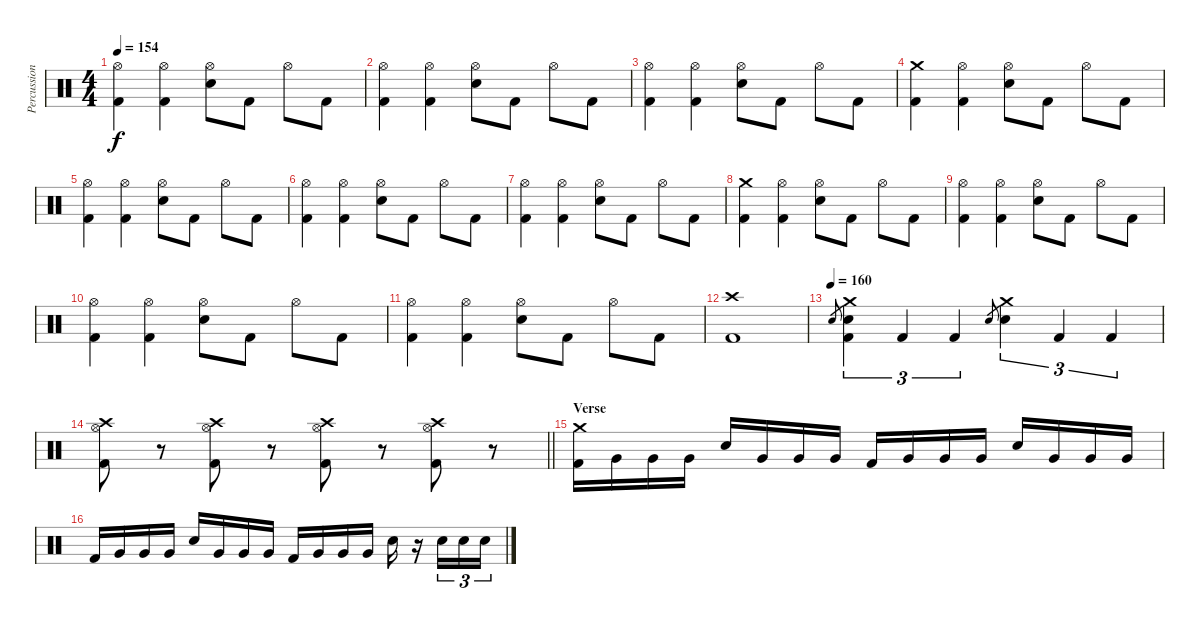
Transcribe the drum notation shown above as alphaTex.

\track ("Percussion" "Percussion") {instrument percussion}
\staff {score}
\articulation defaults
\ts (4 4)
\tempo 154
\clef neutral
\ks c
("Hi-Hat (open)" "Kick (hit) 2").4{dy f} ("Hi-Hat (open)" "Kick (hit) 2").4 ("Electric Snare (hit)" "Hi-Hat (open)").8 "Kick (hit) 2".8 "Hi-Hat (open)".8 "Kick (hit) 2".8 |
("Hi-Hat (open)" "Kick (hit) 2").4 ("Hi-Hat (open)" "Kick (hit) 2").4 ("Electric Snare (hit)" "Hi-Hat (open)").8 "Kick (hit) 2".8 "Hi-Hat (open)".8 "Kick (hit) 2".8 |
("Hi-Hat (open)" "Kick (hit) 2").4 ("Hi-Hat (open)" "Kick (hit) 2").4 ("Electric Snare (hit)" "Hi-Hat (open)").8 "Kick (hit) 2".8 "Hi-Hat (open)".8 "Kick (hit) 2".8 |
("Crash medium (hit)" "Kick (hit) 2").4 ("Hi-Hat (open)" "Kick (hit) 2").4 ("Electric Snare (hit)" "Hi-Hat (open)").8 "Kick (hit) 2".8 "Hi-Hat (open)".8 "Kick (hit) 2".8 |
("Hi-Hat (open)" "Kick (hit) 2").4 ("Hi-Hat (open)" "Kick (hit) 2").4 ("Electric Snare (hit)" "Hi-Hat (open)").8 "Kick (hit) 2".8 "Hi-Hat (open)".8 "Kick (hit) 2".8 |
("Hi-Hat (open)" "Kick (hit) 2").4 ("Hi-Hat (open)" "Kick (hit) 2").4 ("Electric Snare (hit)" "Hi-Hat (open)").8 "Kick (hit) 2".8 "Hi-Hat (open)".8 "Kick (hit) 2".8 |
("Hi-Hat (open)" "Kick (hit) 2").4 ("Hi-Hat (open)" "Kick (hit) 2").4 ("Electric Snare (hit)" "Hi-Hat (open)").8 "Kick (hit) 2".8 "Hi-Hat (open)".8 "Kick (hit) 2".8 |
("Crash medium (hit)" "Kick (hit) 2").4 ("Hi-Hat (open)" "Kick (hit) 2").4 ("Electric Snare (hit)" "Hi-Hat (open)").8 "Kick (hit) 2".8 "Hi-Hat (open)".8 "Kick (hit) 2".8 |
("Hi-Hat (open)" "Kick (hit) 2").4 ("Hi-Hat (open)" "Kick (hit) 2").4 ("Electric Snare (hit)" "Hi-Hat (open)").8 "Kick (hit) 2".8 "Hi-Hat (open)".8 "Kick (hit) 2".8 |
("Hi-Hat (open)" "Kick (hit) 2").4 ("Hi-Hat (open)" "Kick (hit) 2").4 ("Electric Snare (hit)" "Hi-Hat (open)").8 "Kick (hit) 2".8 "Hi-Hat (open)".8 "Kick (hit) 2".8 |
("Hi-Hat (open)" "Kick (hit) 2").4 ("Hi-Hat (open)" "Kick (hit) 2").4 ("Electric Snare (hit)" "Hi-Hat (open)").8 "Kick (hit) 2".8 "Hi-Hat (open)".8 "Kick (hit) 2".8 |
("Crash high (hit)" "Kick (hit) 2").1 |
\tempo (160)
"Electric Snare (hit)".8{gr} ("Crash medium (hit)" "Electric Snare (hit)" "Kick (hit) 2").4{tu (3 2)} "Kick (hit) 2".4{tu (3 2)} "Kick (hit) 2".4{tu (3 2)} "Electric Snare (hit)".8{gr} ("Crash medium (hit)" "Electric Snare (hit)").4{tu (3 2)} "Kick (hit) 2".4{tu (3 2)} "Kick (hit) 2".4{tu (3 2)} |
\barLineRight lightlight
("Crash high (hit)" "Hi-Hat (open)" "Kick (hit) 2").8 r.8 ("Crash high (hit)" "Hi-Hat (open)" "Kick (hit) 2").8 r.8 ("Crash high (hit)" "Hi-Hat (open)" "Kick (hit) 2").8 r.8 ("Crash high (hit)" "Hi-Hat (open)" "Kick (hit) 2").8 r.8 |
\section ("" "Verse")
("Crash medium (hit)" "Kick (hit) 2").16 "Very Low Tom (hit)".16 "Very Low Tom (hit)".16 "Very Low Tom (hit)".16 "Electric Snare (hit)".16 "Very Low Tom (hit)".16 "Very Low Tom (hit)".16 "Very Low Tom (hit)".16 "Kick (hit) 2".16 "Very Low Tom (hit)".16 "Very Low Tom (hit)".16 "Very Low Tom (hit)".16 "Electric Snare (hit)".16 "Very Low Tom (hit)".16 "Very Low Tom (hit)".16 "Very Low Tom (hit)".16 |
"Kick (hit) 2".16 "Very Low Tom (hit)".16 "Very Low Tom (hit)".16 "Very Low Tom (hit)".16 "Electric Snare (hit)".16 "Very Low Tom (hit)".16 "Very Low Tom (hit)".16 "Very Low Tom (hit)".16 "Kick (hit) 2".16 "Very Low Tom (hit)".16 "Very Low Tom (hit)".16 "Very Low Tom (hit)".16 "Electric Snare (hit)".16 r.16 "Electric Snare (hit)".16{tu (3 2)} "Electric Snare (hit)".16{tu (3 2)} "Electric Snare (hit)".16{tu (3 2)}
